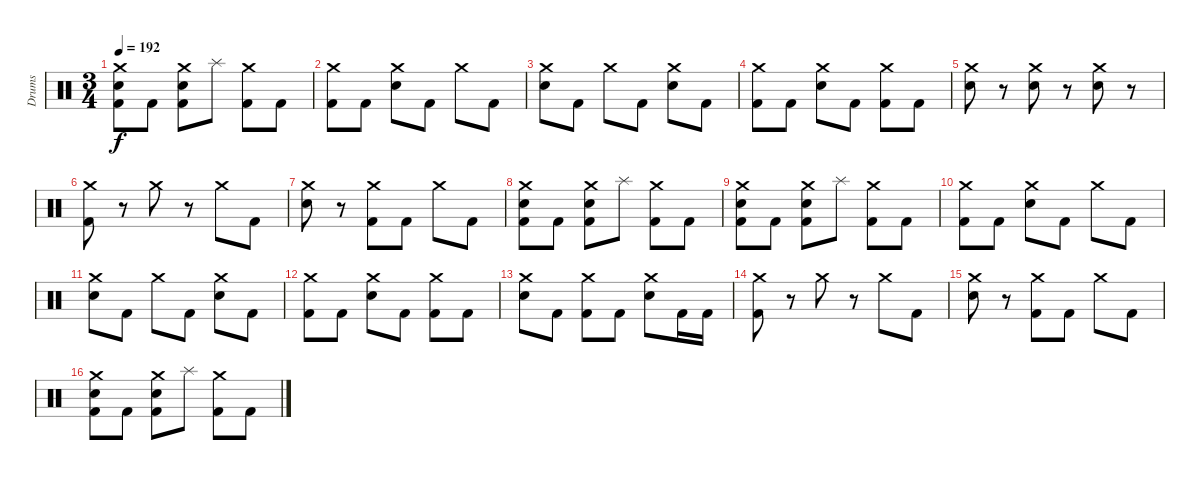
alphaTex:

\track ("Drums" "Drums") {instrument percussion}
\staff {score}
\articulation defaults
\ts (3 4)
\tempo 192
\clef neutral
\ks c
("Crash medium (hit)" "Electric Snare (hit)" "Kick (hit) 2").8{dy f} "Kick (hit) 2".8 ("Crash medium (hit)" "Electric Snare (hit)" "Kick (hit) 2").8 "Splash (hit)".8 ("Crash medium (hit)" "Kick (hit) 2").8 "Kick (hit) 2".8 |
("Crash medium (hit)" "Kick (hit) 2").8 "Kick (hit) 2".8 ("Crash medium (hit)" "Electric Snare (hit)").8 "Kick (hit) 2".8 "Crash medium (hit)".8 "Kick (hit) 2".8 |
("Crash medium (hit)" "Electric Snare (hit)").8 "Kick (hit) 2".8 "Crash medium (hit)".8 "Kick (hit) 2".8 ("Crash medium (hit)" "Electric Snare (hit)").8 "Kick (hit) 2".8 |
("Crash medium (hit)" "Kick (hit) 2").8 "Kick (hit) 2".8 ("Crash medium (hit)" "Electric Snare (hit)").8 "Kick (hit) 2".8 ("Crash medium (hit)" "Kick (hit) 2").8 "Kick (hit) 2".8 |
("Crash medium (hit)" "Electric Snare (hit)").8 r.8 ("Crash medium (hit)" "Electric Snare (hit)").8 r.8 ("Crash medium (hit)" "Electric Snare (hit)").8 r.8 |
("Crash medium (hit)" "Kick (hit) 2").8 r.8 "Crash medium (hit)".8 r.8 "Crash medium (hit)".8 "Kick (hit) 2".8 |
("Crash medium (hit)" "Electric Snare (hit)").8 r.8 ("Crash medium (hit)" "Kick (hit) 2").8 "Kick (hit) 2".8 "Crash medium (hit)".8 "Kick (hit) 2".8 |
("Crash medium (hit)" "Electric Snare (hit)" "Kick (hit) 2").8 "Kick (hit) 2".8 ("Crash medium (hit)" "Electric Snare (hit)" "Kick (hit) 2").8 "Splash (hit)".8 ("Crash medium (hit)" "Kick (hit) 2").8 "Kick (hit) 2".8 |
("Crash medium (hit)" "Electric Snare (hit)" "Kick (hit) 2").8 "Kick (hit) 2".8 ("Crash medium (hit)" "Electric Snare (hit)" "Kick (hit) 2").8 "Splash (hit)".8 ("Crash medium (hit)" "Kick (hit) 2").8 "Kick (hit) 2".8 |
("Crash medium (hit)" "Kick (hit) 2").8 "Kick (hit) 2".8 ("Crash medium (hit)" "Electric Snare (hit)").8 "Kick (hit) 2".8 "Crash medium (hit)".8 "Kick (hit) 2".8 |
("Crash medium (hit)" "Electric Snare (hit)").8 "Kick (hit) 2".8 "Crash medium (hit)".8 "Kick (hit) 2".8 ("Crash medium (hit)" "Electric Snare (hit)").8 "Kick (hit) 2".8 |
("Crash medium (hit)" "Kick (hit) 2").8 "Kick (hit) 2".8 ("Crash medium (hit)" "Electric Snare (hit)").8 "Kick (hit) 2".8 ("Crash medium (hit)" "Kick (hit) 2").8 "Kick (hit) 2".8 |
("Crash medium (hit)" "Electric Snare (hit)").8 "Kick (hit) 2".8 ("Crash medium (hit)" "Kick (hit) 2").8 "Kick (hit) 2".8 ("Crash medium (hit)" "Electric Snare (hit)").8 "Kick (hit) 2".16 "Kick (hit) 2".16 |
("Crash medium (hit)" "Kick (hit) 2").8 r.8 "Crash medium (hit)".8 r.8 "Crash medium (hit)".8 "Kick (hit) 2".8 |
("Crash medium (hit)" "Electric Snare (hit)").8 r.8 ("Crash medium (hit)" "Kick (hit) 2").8 "Kick (hit) 2".8 "Crash medium (hit)".8 "Kick (hit) 2".8 |
("Crash medium (hit)" "Electric Snare (hit)" "Kick (hit) 2").8 "Kick (hit) 2".8 ("Crash medium (hit)" "Electric Snare (hit)" "Kick (hit) 2").8 "Splash (hit)".8 ("Crash medium (hit)" "Kick (hit) 2").8 "Kick (hit) 2".8
